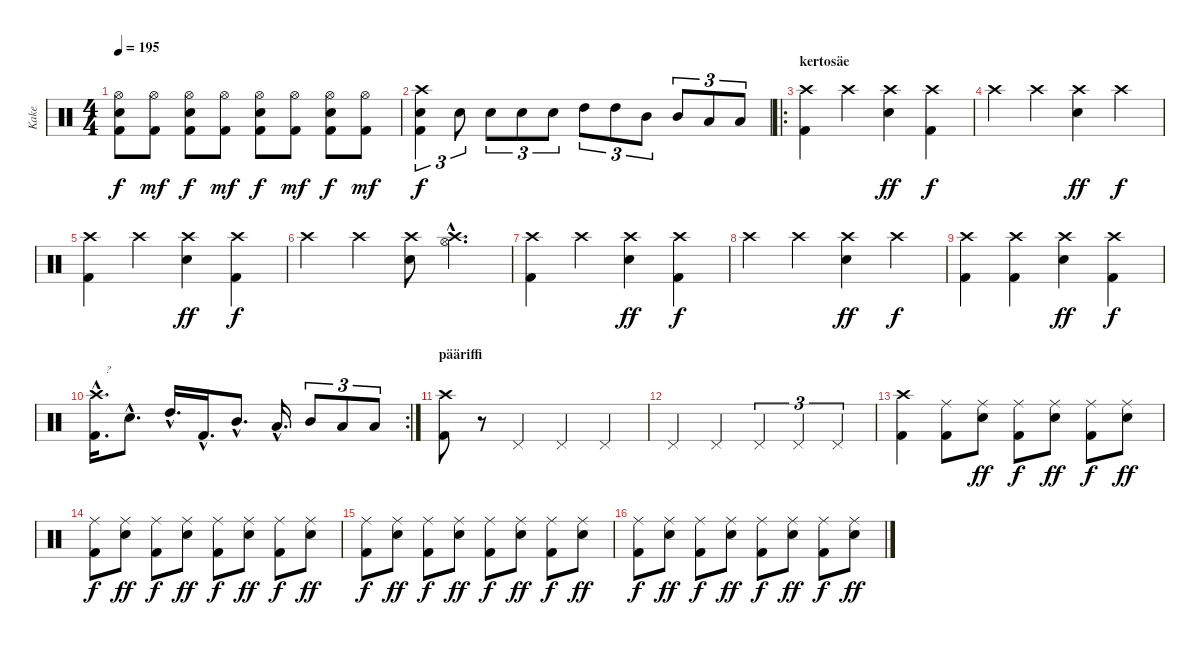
\track ("Kake " "Kake ") {instrument percussion}
\staff {score}
\articulation defaults
\ts (4 4)
\tempo 195
\clef neutral
\ks c
("Hi-Hat (open)" "Electric Snare (hit)" "Kick (hit) 2").8{dy f} ("Hi-Hat (open)" "Kick (hit) 2").8{dy mf} ("Hi-Hat (open)" "Electric Snare (hit)" "Kick (hit) 2").8{dy f} ("Hi-Hat (open)" "Kick (hit) 2").8{dy mf} ("Hi-Hat (open)" "Electric Snare (hit)" "Kick (hit) 2").8{dy f} ("Hi-Hat (open)" "Kick (hit) 2").8{dy mf} ("Hi-Hat (open)" "Electric Snare (hit)" "Kick (hit) 2").8{dy f} ("Hi-Hat (open)" "Kick (hit) 2").8{dy mf} |
("Crash high (hit)" "Electric Snare (hit)" "Kick (hit) 2").4{tu (3 2) dy f} "Electric Snare (hit)".8{tu (3 2)} "Electric Snare (hit)".8{tu (3 2)} "Electric Snare (hit)".8{tu (3 2)} "Electric Snare (hit)".8{tu (3 2)} "High Tom (hit)".8{tu (3 2)} "High Tom (hit)".8{tu (3 2)} "Mid Tom (hit)".8{tu (3 2)} "Mid Tom (hit)".8{tu (3 2)} "Low Tom (hit)".8{tu (3 2)} "Low Tom (hit)".8{tu (3 2)} |
\ro
\section ("" "kertosäe")
("Crash high (hit)" "Kick (hit) 2").4 "Crash high (hit)".4 ("Crash high (hit)" "Electric Snare (hit)").4{dy ff} ("Crash high (hit)" "Kick (hit) 2").4{dy f} |
"Crash high (hit)".4 "Crash high (hit)".4 ("Crash high (hit)" "Electric Snare (hit)").4{dy ff} "Crash high (hit)".4{dy f} |
("Crash high (hit)" "Kick (hit) 2").4 "Crash high (hit)".4 ("Crash high (hit)" "Electric Snare (hit)").4{dy ff} ("Crash high (hit)" "Kick (hit) 2").4{dy f} |
"Crash high (hit)".4 "Crash high (hit)".4 ("Crash high (hit)"{pm} "Electric Snare (hit)").8 ("Hi-Hat (open)"{hac} "Crash high (hit)"{hac}).4{d} |
("Crash high (hit)" "Kick (hit) 2").4 "Crash high (hit)".4 ("Crash high (hit)" "Electric Snare (hit)").4{dy ff} ("Crash high (hit)" "Kick (hit) 2").4{dy f} |
"Crash high (hit)".4 "Crash high (hit)".4 ("Crash high (hit)" "Electric Snare (hit)").4{dy ff} "Crash high (hit)".4{dy f} |
("Crash high (hit)" "Kick (hit) 2").4 ("Crash high (hit)" "Kick (hit) 2").4 ("Crash high (hit)" "Electric Snare (hit)").4{dy ff} ("Crash high (hit)" "Kick (hit) 2").4{dy f} |
\rc 2
("Crash high (hit)"{hac} "Kick (hit) 2"{hac}).16{d txt "   ?"} "Electric Snare (hit)"{hac}.8{d} "High Tom (hit)"{hac}.16{d} "Kick (hit) 2"{hac}.16{d} "Mid Tom (hit)"{hac}.8{d} "Low Tom (hit)"{hac}.16{d} "Mid Tom (hit)".8{tu (3 2)} "Low Tom (hit)".8{tu (3 2)} "Low Tom (hit)".8{tu (3 2)} |
\section ("" "pääriffi")
("Crash high (hit)"{pm} "Kick (hit) 2").8 r.8 "Pedal Hi-Hat (hit)".4 "Pedal Hi-Hat (hit)".4 "Pedal Hi-Hat (hit)".4 |
"Pedal Hi-Hat (hit)".4 "Pedal Hi-Hat (hit)".4 "Pedal Hi-Hat (hit)".4{tu (3 2)} "Pedal Hi-Hat (hit)".4{tu (3 2)} "Pedal Hi-Hat (hit)".4{tu (3 2)} |
("Crash high (hit)" "Kick (hit) 2").4 ("Ride (middle)" "Kick (hit) 2").8 ("Ride (middle)" "Electric Snare (hit)").8{dy ff} ("Ride (middle)" "Kick (hit) 2").8{dy f} ("Ride (middle)" "Electric Snare (hit)").8{dy ff} ("Ride (middle)" "Kick (hit) 2").8{dy f} ("Ride (middle)" "Electric Snare (hit)").8{dy ff} |
("Ride (middle)" "Kick (hit) 2").8{dy f} ("Ride (middle)" "Electric Snare (hit)").8{dy ff} ("Ride (middle)" "Kick (hit) 2").8{dy f} ("Ride (middle)" "Electric Snare (hit)").8{dy ff} ("Ride (middle)" "Kick (hit) 2").8{dy f} ("Ride (middle)" "Electric Snare (hit)").8{dy ff} ("Ride (middle)" "Kick (hit) 2").8{dy f} ("Ride (middle)" "Electric Snare (hit)").8{dy ff} |
("Ride (middle)" "Kick (hit) 2").8{dy f} ("Ride (middle)" "Electric Snare (hit)").8{dy ff} ("Ride (middle)" "Kick (hit) 2").8{dy f} ("Ride (middle)" "Electric Snare (hit)").8{dy ff} ("Ride (middle)" "Kick (hit) 2").8{dy f} ("Ride (middle)" "Electric Snare (hit)").8{dy ff} ("Ride (middle)" "Kick (hit) 2").8{dy f} ("Ride (middle)" "Electric Snare (hit)").8{dy ff} |
("Ride (middle)" "Kick (hit) 2").8{dy f} ("Ride (middle)" "Electric Snare (hit)").8{dy ff} ("Ride (middle)" "Kick (hit) 2").8{dy f} ("Ride (middle)" "Electric Snare (hit)").8{dy ff} ("Ride (middle)" "Kick (hit) 2").8{dy f} ("Ride (middle)" "Electric Snare (hit)").8{dy ff} ("Ride (middle)" "Kick (hit) 2").8{dy f} ("Ride (middle)" "Electric Snare (hit)").8{dy ff}
